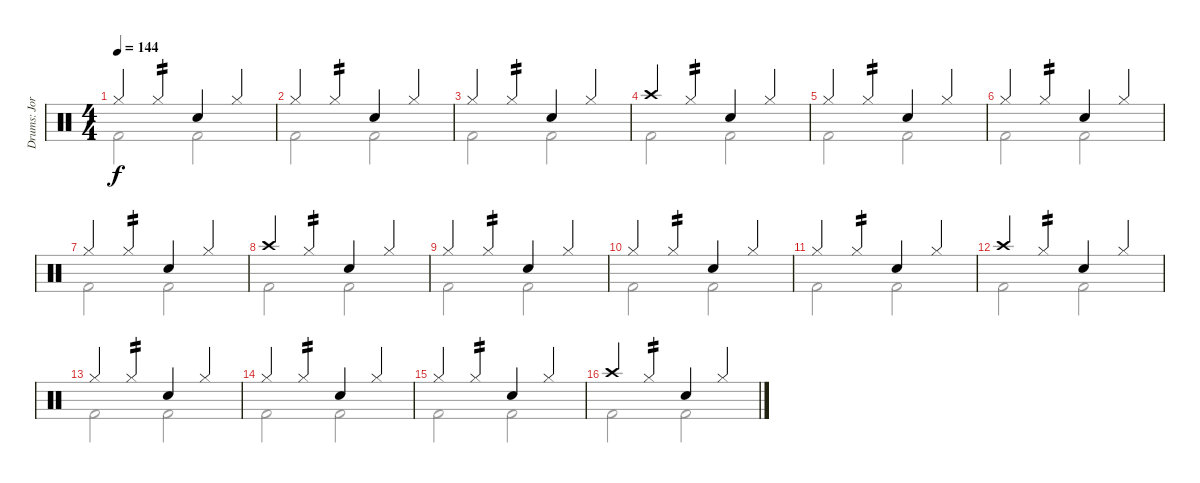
\track ("Drums: Jorg" "Drums: Jor") {instrument percussion}
\staff {score}
\articulation defaults
\voice
\ts (4 4)
\tempo 144
\clef neutral
\ks c "Hi-Hat (closed)".4{dy f} "Hi-Hat (closed)".4{tp 2} "Snare (hit) 2".4 "Hi-Hat (closed)".4
|
"Hi-Hat (closed)".4 "Hi-Hat (closed)".4{tp 2} "Snare (hit) 2".4 "Hi-Hat (closed)".4 |
"Hi-Hat (closed)".4 "Hi-Hat (closed)".4{tp 2} "Snare (hit) 2".4 "Hi-Hat (closed)".4 |
"Crash high (hit)".4 "Hi-Hat (closed)".4{tp 2} "Snare (hit) 2".4 "Hi-Hat (closed)".4 |
"Hi-Hat (closed)".4 "Hi-Hat (closed)".4{tp 2} "Snare (hit) 2".4 "Hi-Hat (closed)".4 |
"Hi-Hat (closed)".4 "Hi-Hat (closed)".4{tp 2} "Snare (hit) 2".4 "Hi-Hat (closed)".4 |
"Hi-Hat (closed)".4 "Hi-Hat (closed)".4{tp 2} "Snare (hit) 2".4 "Hi-Hat (closed)".4 |
"Crash high (hit)".4 "Hi-Hat (closed)".4{tp 2} "Snare (hit) 2".4 "Hi-Hat (closed)".4 |
"Hi-Hat (closed)".4 "Hi-Hat (closed)".4{tp 2} "Snare (hit) 2".4 "Hi-Hat (closed)".4 |
"Hi-Hat (closed)".4 "Hi-Hat (closed)".4{tp 2} "Snare (hit) 2".4 "Hi-Hat (closed)".4 |
"Hi-Hat (closed)".4 "Hi-Hat (closed)".4{tp 2} "Snare (hit) 2".4 "Hi-Hat (closed)".4 |
"Crash high (hit)".4 "Hi-Hat (closed)".4{tp 2} "Snare (hit) 2".4 "Hi-Hat (closed)".4 |
"Hi-Hat (closed)".4 "Hi-Hat (closed)".4{tp 2} "Snare (hit) 2".4 "Hi-Hat (closed)".4 |
"Hi-Hat (closed)".4 "Hi-Hat (closed)".4{tp 2} "Snare (hit) 2".4 "Hi-Hat (closed)".4 |
"Hi-Hat (closed)".4 "Hi-Hat (closed)".4{tp 2} "Snare (hit) 2".4 "Hi-Hat (closed)".4 |
"Crash high (hit)".4 "Hi-Hat (closed)".4{tp 2} "Snare (hit) 2".4 "Hi-Hat (closed)".4
\voice
\clef neutral
\ottava regular
\simile none
\ks c "Kick (hit) 2".2{dy f} "Kick (hit) 2".2
|
"Kick (hit) 2".2 "Kick (hit) 2".2 |
"Kick (hit) 2".2 "Kick (hit) 2".2 |
"Kick (hit) 2".2 "Kick (hit) 2".2 |
"Kick (hit) 2".2 "Kick (hit) 2".2 |
"Kick (hit) 2".2 "Kick (hit) 2".2 |
"Kick (hit) 2".2 "Kick (hit) 2".2 |
"Kick (hit) 2".2 "Kick (hit) 2".2 |
"Kick (hit) 2".2 "Kick (hit) 2".2 |
"Kick (hit) 2".2 "Kick (hit) 2".2 |
"Kick (hit) 2".2 "Kick (hit) 2".2 |
"Kick (hit) 2".2 "Kick (hit) 2".2 |
"Kick (hit) 2".2 "Kick (hit) 2".2 |
"Kick (hit) 2".2 "Kick (hit) 2".2 |
"Kick (hit) 2".2 "Kick (hit) 2".2 |
"Kick (hit) 2".2 "Kick (hit) 2".2
